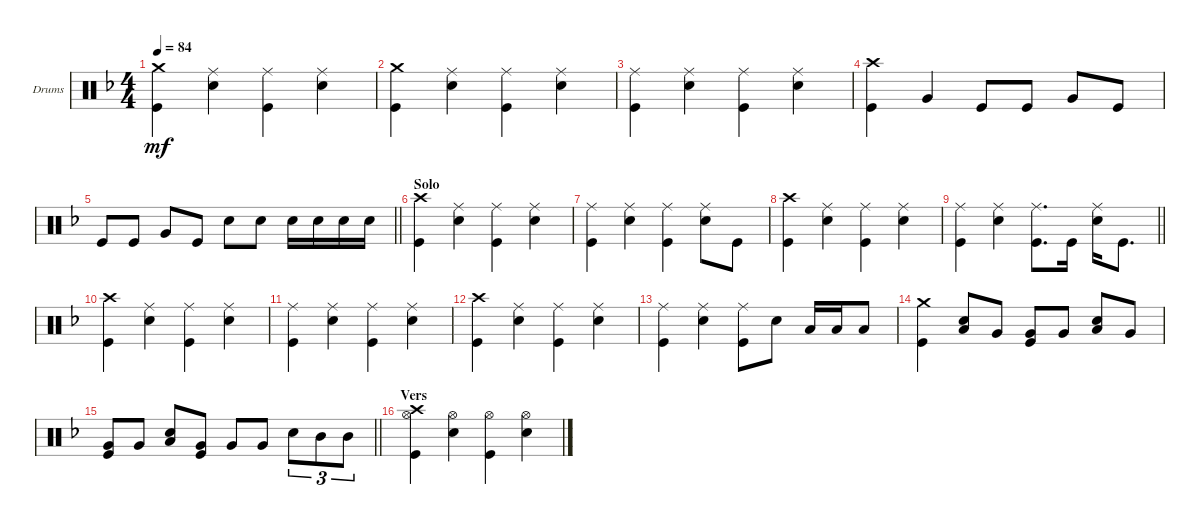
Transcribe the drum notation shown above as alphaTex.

\defaultSystemsLayout 4
\bracketExtendMode groupsimilarinstruments
\firstSystemTrackNameOrientation horizontal
\otherSystemsTrackNameOrientation horizontal
\track ("Drumkit" "Drums") {instrument percussion}
\staff {score}
\articulation defaults
\ts (4 4)
\tempo 84
\clef neutral
\ks dminor
("Crash medium (hit)" "Kick (hit)").4{dy mf} ("Ride (middle)" "Snare (hit) 2").4 ("Ride (middle)" "Kick (hit)").4 ("Ride (middle)" "Snare (hit) 2").4 |
("Crash medium (hit)" "Kick (hit)").4 ("Ride (middle)" "Snare (hit) 2").4 ("Ride (middle)" "Kick (hit)").4 ("Ride (middle)" "Snare (hit) 2").4 |
("Kick (hit)" "Ride (middle)").4 ("Ride (middle)" "Snare (hit) 2").4 ("Ride (middle)" "Kick (hit)").4 ("Ride (middle)" "Snare (hit) 2").4 |
("Crash high (hit)" "Kick (hit)").4 "Very Low Tom (hit)".4 "Kick (hit)".8 "Kick (hit)".8 "Very Low Tom (hit)".8 "Kick (hit)".8 |
\barLineRight lightlight "Kick (hit)".8 "Kick (hit)".8 "Very Low Tom (hit)".8 "Kick (hit)".8 "Snare (hit) 2".8 "Snare (hit) 2".8 "Snare (hit) 2".16 "Snare (hit) 2".16 "Snare (hit) 2".16 "Snare (hit) 2".16
|
\section ("" "Solo")
("Kick (hit)" "Crash high (hit)").4 ("Ride (middle)" "Snare (hit) 2").4 ("Ride (middle)" "Kick (hit)").4 ("Ride (middle)" "Snare (hit) 2").4 |
("Kick (hit)" "Ride (middle)").4 ("Ride (middle)" "Snare (hit) 2").4 ("Ride (middle)" "Kick (hit)").4 ("Ride (middle)" "Snare (hit) 2").8 "Kick (hit)".8 |
("Kick (hit)" "Crash high (hit)").4 ("Ride (middle)" "Snare (hit) 2").4 ("Ride (middle)" "Kick (hit)").4 ("Ride (middle)" "Snare (hit) 2").4 |
\barLineRight lightlight
("Kick (hit)" "Ride (middle)").4 ("Ride (middle)" "Snare (hit) 2").4 ("Ride (middle)" "Kick (hit)").8{d} "Kick (hit)".16 ("Ride (middle)" "Snare (hit) 2").16 "Kick (hit)".8{d} |
("Kick (hit)" "Crash high (hit)").4 ("Ride (middle)" "Snare (hit) 2").4 ("Ride (middle)" "Kick (hit)").4 ("Ride (middle)" "Snare (hit) 2").4 |
("Kick (hit)" "Ride (middle)").4 ("Ride (middle)" "Snare (hit) 2").4 ("Ride (middle)" "Kick (hit)").4 ("Ride (middle)" "Snare (hit) 2").4 |
("Kick (hit)" "Crash high (hit)").4 ("Ride (middle)" "Snare (hit) 2").4 ("Ride (middle)" "Kick (hit)").4 ("Ride (middle)" "Snare (hit) 2").4 |
("Kick (hit)" "Ride (middle)").4 ("Ride (middle)" "Snare (hit) 2").4 ("Ride (middle)" "Kick (hit)").8 "Snare (hit) 2".8 "Low Tom (hit)".16 "Low Tom (hit)".16 "Low Tom (hit)".8 |
("Crash medium (hit)" "Kick (hit)").4 ("Snare (hit) 2" "Low Tom (hit)").8 "Very Low Tom (hit)".8 ("Very Low Tom (hit)" "Kick (hit)").8 "Very Low Tom (hit)".8 ("Snare (hit) 2" "Low Tom (hit)").8 "Very Low Tom (hit)".8 |
\barLineRight lightlight
("Very Low Tom (hit)" "Kick (hit)").8 "Very Low Tom (hit)".8 ("Snare (hit) 2" "Low Tom (hit)").8 ("Very Low Tom (hit)" "Kick (hit)").8 "Very Low Tom (hit)".8 "Very Low Tom (hit)".8 "Snare (hit) 2".8{tu (3 2)} "Mid Tom (hit)".8{tu (3 2)} "Mid Tom (hit)".8{tu (3 2)} |
\section ("" "Vers")
("Crash high (hit)" "Kick (hit)" "Hi-Hat (open)").4 ("Hi-Hat (open)" "Snare (hit) 2").4 ("Hi-Hat (open)" "Kick (hit)").4 ("Hi-Hat (open)" "Snare (hit) 2").4
